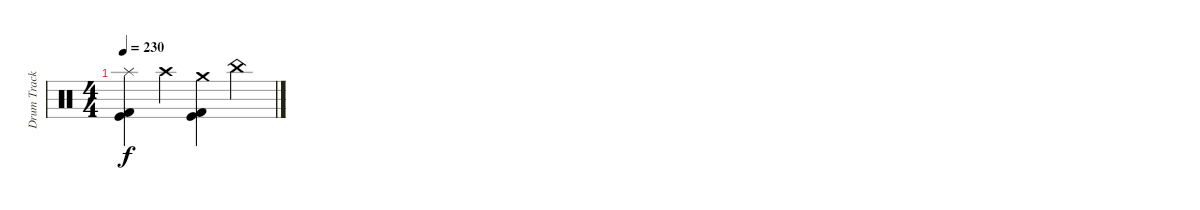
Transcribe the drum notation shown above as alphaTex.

\track ("Drum Track" "Drum Track") {instrument percussion}
\staff {score}
\articulation defaults
\ts (4 4)
\tempo 230
\clef neutral
\ks c
("Splash (hit)" "Kick (hit) 2" "Kick (hit)").4{dy f} "Crash high (hit)".4 ("Crash medium (hit)" "Kick (hit) 2" "Kick (hit)").4 "China (hit)".4
